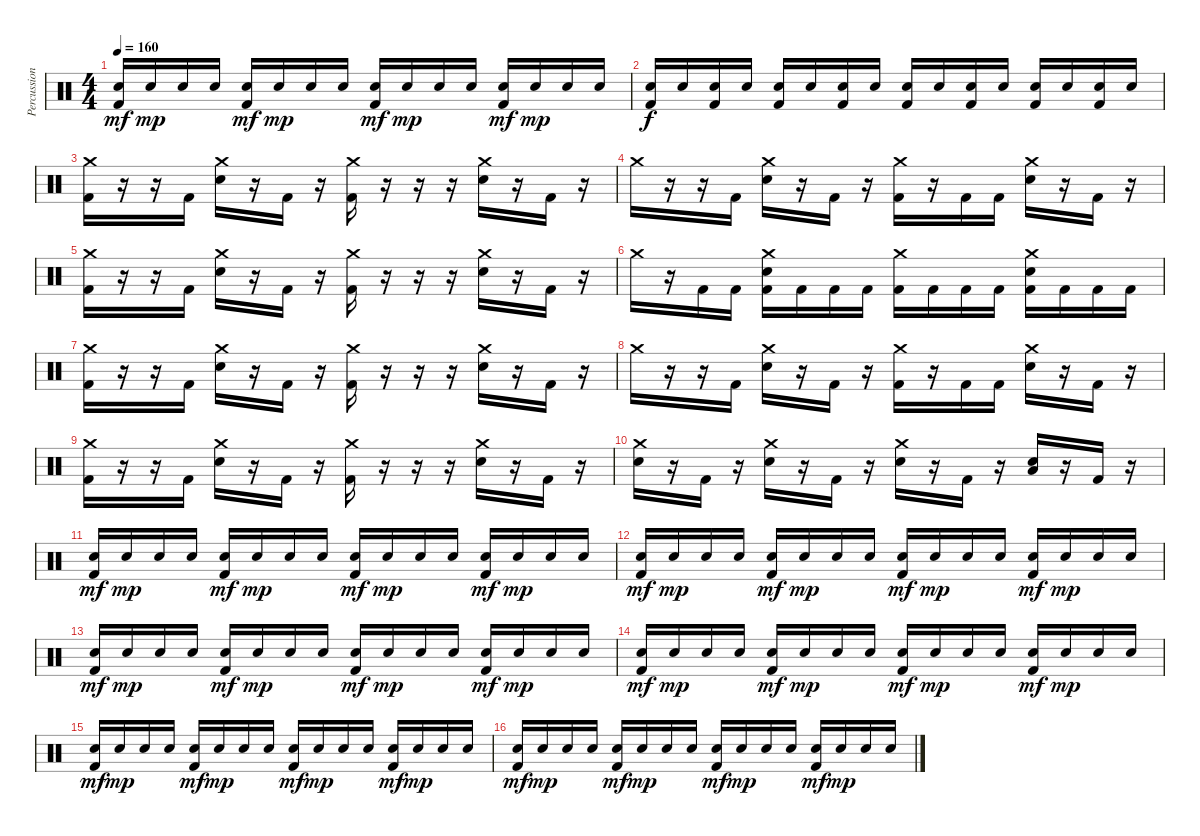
\track ("Percussions" "Percussion") {instrument percussion}
\staff {score}
\articulation defaults
\ts (4 4)
\tempo 160
\clef neutral
\ks c
("Kick (hit) 2" "Electric Snare (hit)").16{dy mf} "Electric Snare (hit)".16{dy mp} "Electric Snare (hit)".16 "Electric Snare (hit)".16 ("Kick (hit) 2" "Electric Snare (hit)").16{dy mf} "Electric Snare (hit)".16{dy mp} "Electric Snare (hit)".16 "Electric Snare (hit)".16 ("Kick (hit) 2" "Electric Snare (hit)").16{dy mf} "Electric Snare (hit)".16{dy mp} "Electric Snare (hit)".16 "Electric Snare (hit)".16 ("Kick (hit) 2" "Electric Snare (hit)").16{dy mf} "Electric Snare (hit)".16{dy mp} "Electric Snare (hit)".16 "Electric Snare (hit)".16 |
("Kick (hit) 2" "Electric Snare (hit)").16{dy f} "Electric Snare (hit)".16 ("Kick (hit) 2" "Electric Snare (hit)").16 "Electric Snare (hit)".16 ("Kick (hit) 2" "Electric Snare (hit)").16 "Electric Snare (hit)".16 ("Kick (hit) 2" "Electric Snare (hit)").16 "Electric Snare (hit)".16 ("Kick (hit) 2" "Electric Snare (hit)").16 "Electric Snare (hit)".16 ("Kick (hit) 2" "Electric Snare (hit)").16 "Electric Snare (hit)".16 ("Kick (hit) 2" "Electric Snare (hit)").16 "Electric Snare (hit)".16 ("Kick (hit) 2" "Electric Snare (hit)").16 "Electric Snare (hit)".16 |
("Kick (hit) 2" "Crash medium (hit)").16 r.16 r.16 "Kick (hit) 2".16 ("Electric Snare (hit)" "Crash medium (hit)").16 r.16 "Kick (hit) 2".16 r.16 ("Kick (hit) 2" "Crash medium (hit)").16 r.16 r.16 r.16 ("Electric Snare (hit)" "Crash medium (hit)").16 r.16 "Kick (hit) 2".16 r.16 |
"Crash medium (hit)".16 r.16 r.16 "Kick (hit) 2".16 ("Electric Snare (hit)" "Crash medium (hit)").16 r.16 "Kick (hit) 2".16 r.16 ("Kick (hit) 2" "Crash medium (hit)").16 r.16 "Kick (hit) 2".16 "Kick (hit) 2".16 ("Electric Snare (hit)" "Crash medium (hit)").16 r.16 "Kick (hit) 2".16 r.16 |
("Kick (hit) 2" "Crash medium (hit)").16 r.16 r.16 "Kick (hit) 2".16 ("Electric Snare (hit)" "Crash medium (hit)").16 r.16 "Kick (hit) 2".16 r.16 ("Kick (hit) 2" "Crash medium (hit)").16 r.16 r.16 r.16 ("Electric Snare (hit)" "Crash medium (hit)").16 r.16 "Kick (hit) 2".16 r.16 |
"Crash medium (hit)".16 r.16 "Kick (hit) 2".16 "Kick (hit) 2".16 ("Kick (hit) 2" "Electric Snare (hit)" "Crash medium (hit)").16 "Kick (hit) 2".16 "Kick (hit) 2".16 "Kick (hit) 2".16 ("Kick (hit) 2" "Crash medium (hit)").16 "Kick (hit) 2".16 "Kick (hit) 2".16 "Kick (hit) 2".16 ("Kick (hit) 2" "Electric Snare (hit)" "Crash medium (hit)").16 "Kick (hit) 2".16 "Kick (hit) 2".16 "Kick (hit) 2".16 |
("Kick (hit) 2" "Crash medium (hit)").16 r.16 r.16 "Kick (hit) 2".16 ("Electric Snare (hit)" "Crash medium (hit)").16 r.16 "Kick (hit) 2".16 r.16 ("Kick (hit) 2" "Crash medium (hit)").16 r.16 r.16 r.16 ("Electric Snare (hit)" "Crash medium (hit)").16 r.16 "Kick (hit) 2".16 r.16 |
"Crash medium (hit)".16 r.16 r.16 "Kick (hit) 2".16 ("Electric Snare (hit)" "Crash medium (hit)").16 r.16 "Kick (hit) 2".16 r.16 ("Kick (hit) 2" "Crash medium (hit)").16 r.16 "Kick (hit) 2".16 "Kick (hit) 2".16 ("Electric Snare (hit)" "Crash medium (hit)").16 r.16 "Kick (hit) 2".16 r.16 |
("Kick (hit) 2" "Crash medium (hit)").16 r.16 r.16 "Kick (hit) 2".16 ("Electric Snare (hit)" "Crash medium (hit)").16 r.16 "Kick (hit) 2".16 r.16 ("Kick (hit) 2" "Crash medium (hit)").16 r.16 r.16 r.16 ("Electric Snare (hit)" "Crash medium (hit)").16 r.16 "Kick (hit) 2".16 r.16 |
("Electric Snare (hit)" "Crash medium (hit)").16 r.16 "Kick (hit) 2".16 r.16 ("Electric Snare (hit)" "Crash medium (hit)").16 r.16 "Kick (hit) 2".16 r.16 ("Electric Snare (hit)" "Crash medium (hit)").16 r.16 "Kick (hit) 2".16 r.16 ("Electric Snare (hit)" "Low Tom (hit)").16 r.16 "Kick (hit) 2".16 r.16 |
("Kick (hit) 2" "Electric Snare (hit)").16{dy mf} "Electric Snare (hit)".16{dy mp} "Electric Snare (hit)".16 "Electric Snare (hit)".16 ("Kick (hit) 2" "Electric Snare (hit)").16{dy mf} "Electric Snare (hit)".16{dy mp} "Electric Snare (hit)".16 "Electric Snare (hit)".16 ("Kick (hit) 2" "Electric Snare (hit)").16{dy mf} "Electric Snare (hit)".16{dy mp} "Electric Snare (hit)".16 "Electric Snare (hit)".16 ("Kick (hit) 2" "Electric Snare (hit)").16{dy mf} "Electric Snare (hit)".16{dy mp} "Electric Snare (hit)".16 "Electric Snare (hit)".16 |
("Kick (hit) 2" "Electric Snare (hit)").16{dy mf} "Electric Snare (hit)".16{dy mp} "Electric Snare (hit)".16 "Electric Snare (hit)".16 ("Kick (hit) 2" "Electric Snare (hit)").16{dy mf} "Electric Snare (hit)".16{dy mp} "Electric Snare (hit)".16 "Electric Snare (hit)".16 ("Kick (hit) 2" "Electric Snare (hit)").16{dy mf} "Electric Snare (hit)".16{dy mp} "Electric Snare (hit)".16 "Electric Snare (hit)".16 ("Kick (hit) 2" "Electric Snare (hit)").16{dy mf} "Electric Snare (hit)".16{dy mp} "Electric Snare (hit)".16 "Electric Snare (hit)".16 |
("Kick (hit) 2" "Electric Snare (hit)").16{dy mf} "Electric Snare (hit)".16{dy mp} "Electric Snare (hit)".16 "Electric Snare (hit)".16 ("Kick (hit) 2" "Electric Snare (hit)").16{dy mf} "Electric Snare (hit)".16{dy mp} "Electric Snare (hit)".16 "Electric Snare (hit)".16 ("Kick (hit) 2" "Electric Snare (hit)").16{dy mf} "Electric Snare (hit)".16{dy mp} "Electric Snare (hit)".16 "Electric Snare (hit)".16 ("Kick (hit) 2" "Electric Snare (hit)").16{dy mf} "Electric Snare (hit)".16{dy mp} "Electric Snare (hit)".16 "Electric Snare (hit)".16 |
("Kick (hit) 2" "Electric Snare (hit)").16{dy mf} "Electric Snare (hit)".16{dy mp} "Electric Snare (hit)".16 "Electric Snare (hit)".16 ("Kick (hit) 2" "Electric Snare (hit)").16{dy mf} "Electric Snare (hit)".16{dy mp} "Electric Snare (hit)".16 "Electric Snare (hit)".16 ("Kick (hit) 2" "Electric Snare (hit)").16{dy mf} "Electric Snare (hit)".16{dy mp} "Electric Snare (hit)".16 "Electric Snare (hit)".16 ("Kick (hit) 2" "Electric Snare (hit)").16{dy mf} "Electric Snare (hit)".16{dy mp} "Electric Snare (hit)".16 "Electric Snare (hit)".16 |
("Kick (hit) 2" "Electric Snare (hit)").16{dy mf} "Electric Snare (hit)".16{dy mp} "Electric Snare (hit)".16 "Electric Snare (hit)".16 ("Kick (hit) 2" "Electric Snare (hit)").16{dy mf} "Electric Snare (hit)".16{dy mp} "Electric Snare (hit)".16 "Electric Snare (hit)".16 ("Kick (hit) 2" "Electric Snare (hit)").16{dy mf} "Electric Snare (hit)".16{dy mp} "Electric Snare (hit)".16 "Electric Snare (hit)".16 ("Kick (hit) 2" "Electric Snare (hit)").16{dy mf} "Electric Snare (hit)".16{dy mp} "Electric Snare (hit)".16 "Electric Snare (hit)".16 |
("Kick (hit) 2" "Electric Snare (hit)").16{dy mf} "Electric Snare (hit)".16{dy mp} "Electric Snare (hit)".16 "Electric Snare (hit)".16 ("Kick (hit) 2" "Electric Snare (hit)").16{dy mf} "Electric Snare (hit)".16{dy mp} "Electric Snare (hit)".16 "Electric Snare (hit)".16 ("Kick (hit) 2" "Electric Snare (hit)").16{dy mf} "Electric Snare (hit)".16{dy mp} "Electric Snare (hit)".16 "Electric Snare (hit)".16 ("Kick (hit) 2" "Electric Snare (hit)").16{dy mf} "Electric Snare (hit)".16{dy mp} "Electric Snare (hit)".16 "Electric Snare (hit)".16
